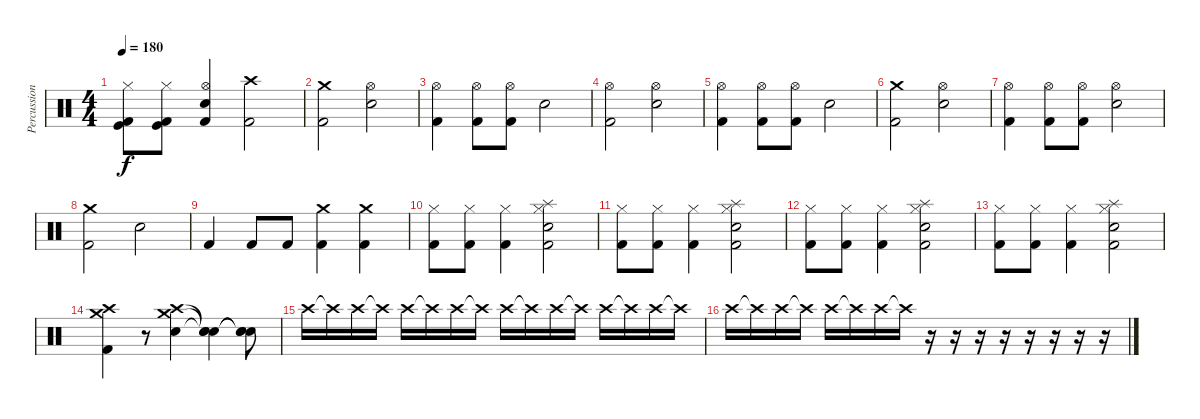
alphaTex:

\track ("Percussion" "Percussion") {instrument percussion}
\staff {score}
\articulation defaults
\ts (4 4)
\tempo 180
\clef neutral
\ks c
("Hi-Hat (closed)" "Kick (hit)" "Kick (hit) 2").8{dy f} ("Hi-Hat (closed)" "Kick (hit)" "Kick (hit) 2").8 ("Hi-Hat (open)" "Snare (hit) 2" "Kick (hit) 2").4 ("Crash high (hit)" "Kick (hit) 2").2 |
("Crash medium (hit)" "Kick (hit) 2").2 ("Hi-Hat (open)" "Snare (hit) 2").2 |
("Hi-Hat (open)" "Kick (hit) 2").4 ("Hi-Hat (open)" "Kick (hit) 2").8 ("Hi-Hat (open)" "Kick (hit) 2").8 "Snare (hit) 2".2 |
("Hi-Hat (open)" "Kick (hit) 2").2 ("Hi-Hat (open)" "Snare (hit) 2").2 |
("Hi-Hat (open)" "Kick (hit) 2").4 ("Hi-Hat (open)" "Kick (hit) 2").8 ("Hi-Hat (open)" "Kick (hit) 2").8 "Snare (hit) 2".2 |
("Crash medium (hit)" "Kick (hit) 2").2 ("Hi-Hat (open)" "Snare (hit) 2").2 |
("Hi-Hat (open)" "Kick (hit) 2").4 ("Hi-Hat (open)" "Kick (hit) 2").8 ("Hi-Hat (open)" "Kick (hit) 2").8 ("Hi-Hat (open)" "Snare (hit) 2").2 |
("Crash medium (hit)" "Kick (hit) 2").2 "Snare (hit) 2".2 |
"Kick (hit) 2".4 "Kick (hit) 2".8 "Kick (hit) 2".8 ("Crash medium (hit)" "Kick (hit) 2").4 ("Crash medium (hit)" "Kick (hit) 2").4 |
("Hi-Hat (closed)" "Kick (hit) 2").8 ("Hi-Hat (closed)" "Kick (hit) 2").8 ("Hi-Hat (closed)" "Kick (hit) 2").4 ("Splash (hit)" "Hi-Hat (closed)" "Snare (hit) 2" "Kick (hit) 2").2 |
("Hi-Hat (closed)" "Kick (hit) 2").8 ("Hi-Hat (closed)" "Kick (hit) 2").8 ("Hi-Hat (closed)" "Kick (hit) 2").4 ("Splash (hit)" "Hi-Hat (closed)" "Snare (hit) 2" "Kick (hit) 2").2 |
("Hi-Hat (closed)" "Kick (hit) 2").8 ("Hi-Hat (closed)" "Kick (hit) 2").8 ("Hi-Hat (closed)" "Kick (hit) 2").4 ("Splash (hit)" "Hi-Hat (closed)" "Snare (hit) 2" "Kick (hit) 2").2 |
("Hi-Hat (closed)" "Kick (hit) 2").8 ("Hi-Hat (closed)" "Kick (hit) 2").8 ("Hi-Hat (closed)" "Kick (hit) 2").4 ("Splash (hit)" "Hi-Hat (closed)" "Snare (hit) 2" "Kick (hit) 2").2 |
("Crash medium (hit)" "Crash high (hit)" "Kick (hit) 2").4 r.8 ("Crash medium (hit)" "Crash high (hit)" "Snare (hit) 2").4 ("Snare (hit)"{t} "Snare (hit)"{t} "Snare (hit)"{t}).4 ("Snare (hit)"{t} "Snare (hit)"{t} "Snare (hit)"{t}).8 |
"Crash high (hit)".16{volume 16} "Crash high (hit)"{t}.16 "Crash high (hit)".16 "Crash high (hit)"{t}.16 "Crash high (hit)".16 "Crash high (hit)"{t}.16 "Crash high (hit)".16 "Crash high (hit)"{t}.16 "Crash high (hit)".16 "Crash high (hit)"{t}.16 "Crash high (hit)".16 "Crash high (hit)"{t}.16 "Crash high (hit)".16 "Crash high (hit)"{t}.16 "Crash high (hit)".16 "Crash high (hit)"{t}.16 |
"Crash high (hit)".16 "Crash high (hit)"{t}.16 "Crash high (hit)".16 "Crash high (hit)"{t}.16 "Crash high (hit)".16 "Crash high (hit)"{t}.16 "Crash high (hit)".16 "Crash high (hit)"{t}.16 r.16 r.16 r.16 r.16 r.16 r.16 r.16 r.16
